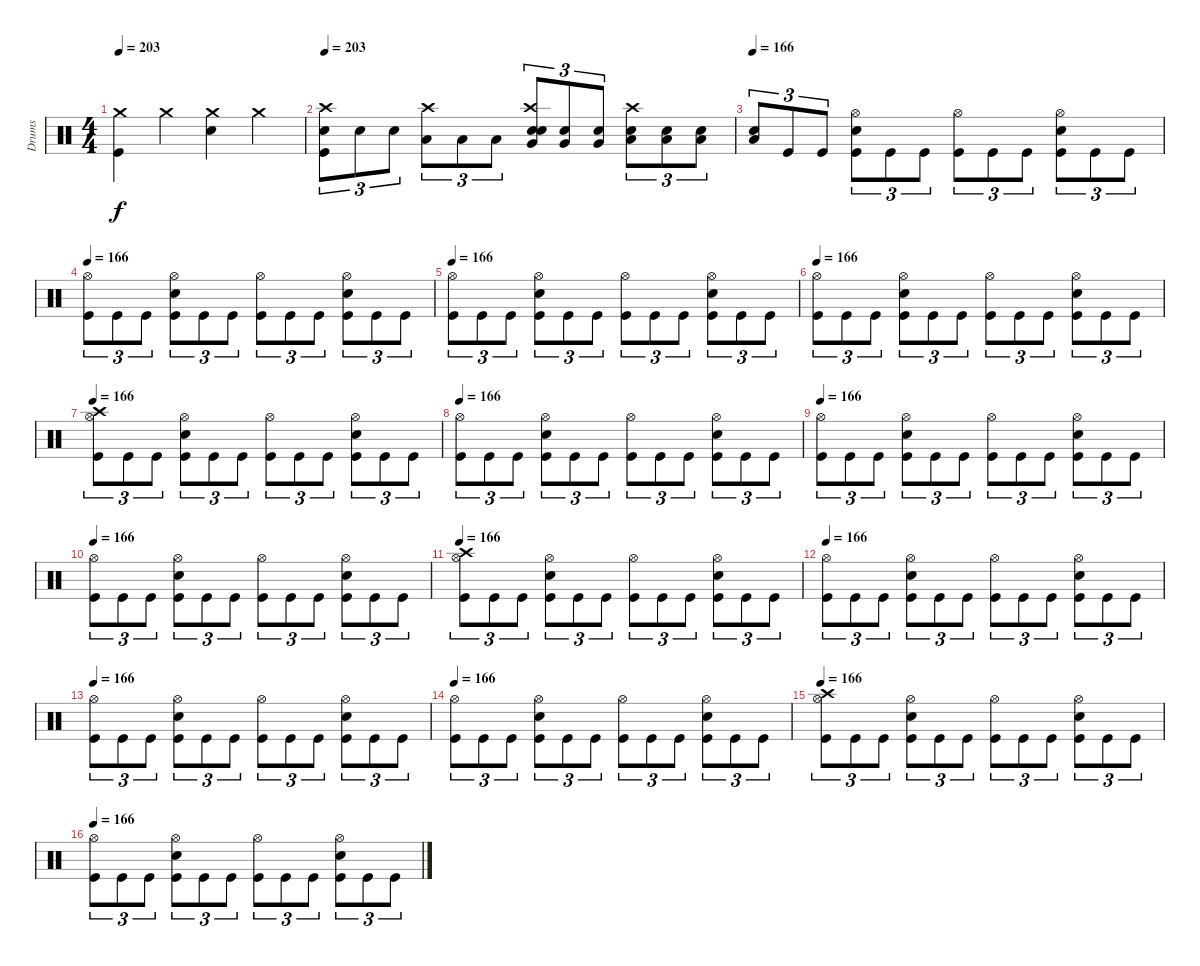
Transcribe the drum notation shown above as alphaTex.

\track ("Drums" "Drums") {instrument percussion}
\staff {score}
\articulation defaults
\ts (4 4)
\tempo 203
\clef neutral
\ks c
("Crash medium (hit)" "Kick (hit)").4{dy f} "Crash medium (hit)".4 ("Electric Snare (hit)" "Crash medium (hit)").4 "Crash medium (hit)".4 |
\tempo 203
("Electric Snare (hit)" "Crash high (hit)" "Kick (hit)").8{tu (3 2)} "Electric Snare (hit)".8{tu (3 2)} "Electric Snare (hit)".8{tu (3 2)} ("Low Tom (hit)" "Crash high (hit)").8{tu (3 2)} "Low Tom (hit)".8{tu (3 2)} "Low Tom (hit)".8{tu (3 2)} ("Electric Snare (hit)" "Very Low Tom (hit)" "Crash high (hit)" "Electric Snare (hit)").8{tu (3 2)} ("Very Low Tom (hit)" "Electric Snare (hit)").8{tu (3 2)} ("Very Low Tom (hit)" "Electric Snare (hit)").8{tu (3 2)} ("Low Floor Tom (hit)" "Crash high (hit)" "Electric Snare (hit)").8{tu (3 2)} ("Low Floor Tom (hit)" "Electric Snare (hit)").8{tu (3 2)} ("Low Floor Tom (hit)" "Electric Snare (hit)").8{tu (3 2)} |
\tempo 166
("Low Floor Tom (hit)" "Electric Snare (hit)").8{tu (3 2)} "Kick (hit)".8{tu (3 2)} "Kick (hit)".8{tu (3 2)} ("Hi-Hat (open)" "Electric Snare (hit)" "Kick (hit)").8{tu (3 2)} "Kick (hit)".8{tu (3 2)} "Kick (hit)".8{tu (3 2)} ("Hi-Hat (open)" "Kick (hit)").8{tu (3 2)} "Kick (hit)".8{tu (3 2)} "Kick (hit)".8{tu (3 2)} ("Hi-Hat (open)" "Electric Snare (hit)" "Kick (hit)").8{tu (3 2)} "Kick (hit)".8{tu (3 2)} "Kick (hit)".8{tu (3 2)} |
\tempo 166
("Hi-Hat (open)" "Kick (hit)").8{tu (3 2)} "Kick (hit)".8{tu (3 2)} "Kick (hit)".8{tu (3 2)} ("Hi-Hat (open)" "Electric Snare (hit)" "Kick (hit)").8{tu (3 2)} "Kick (hit)".8{tu (3 2)} "Kick (hit)".8{tu (3 2)} ("Hi-Hat (open)" "Kick (hit)").8{tu (3 2)} "Kick (hit)".8{tu (3 2)} "Kick (hit)".8{tu (3 2)} ("Hi-Hat (open)" "Electric Snare (hit)" "Kick (hit)").8{tu (3 2)} "Kick (hit)".8{tu (3 2)} "Kick (hit)".8{tu (3 2)} |
\tempo 166
("Hi-Hat (open)" "Kick (hit)").8{tu (3 2)} "Kick (hit)".8{tu (3 2)} "Kick (hit)".8{tu (3 2)} ("Hi-Hat (open)" "Electric Snare (hit)" "Kick (hit)").8{tu (3 2)} "Kick (hit)".8{tu (3 2)} "Kick (hit)".8{tu (3 2)} ("Hi-Hat (open)" "Kick (hit)").8{tu (3 2)} "Kick (hit)".8{tu (3 2)} "Kick (hit)".8{tu (3 2)} ("Hi-Hat (open)" "Electric Snare (hit)" "Kick (hit)").8{tu (3 2)} "Kick (hit)".8{tu (3 2)} "Kick (hit)".8{tu (3 2)} |
\tempo 166
("Hi-Hat (open)" "Kick (hit)").8{tu (3 2)} "Kick (hit)".8{tu (3 2)} "Kick (hit)".8{tu (3 2)} ("Hi-Hat (open)" "Electric Snare (hit)" "Kick (hit)").8{tu (3 2)} "Kick (hit)".8{tu (3 2)} "Kick (hit)".8{tu (3 2)} ("Hi-Hat (open)" "Kick (hit)").8{tu (3 2)} "Kick (hit)".8{tu (3 2)} "Kick (hit)".8{tu (3 2)} ("Hi-Hat (open)" "Electric Snare (hit)" "Kick (hit)").8{tu (3 2)} "Kick (hit)".8{tu (3 2)} "Kick (hit)".8{tu (3 2)} |
\tempo 166
("Hi-Hat (open)" "Crash high (hit)" "Kick (hit)").8{tu (3 2)} "Kick (hit)".8{tu (3 2)} "Kick (hit)".8{tu (3 2)} ("Hi-Hat (open)" "Electric Snare (hit)" "Kick (hit)").8{tu (3 2)} "Kick (hit)".8{tu (3 2)} "Kick (hit)".8{tu (3 2)} ("Hi-Hat (open)" "Kick (hit)").8{tu (3 2)} "Kick (hit)".8{tu (3 2)} "Kick (hit)".8{tu (3 2)} ("Hi-Hat (open)" "Electric Snare (hit)" "Kick (hit)").8{tu (3 2)} "Kick (hit)".8{tu (3 2)} "Kick (hit)".8{tu (3 2)} |
\tempo 166
("Hi-Hat (open)" "Kick (hit)").8{tu (3 2)} "Kick (hit)".8{tu (3 2)} "Kick (hit)".8{tu (3 2)} ("Hi-Hat (open)" "Electric Snare (hit)" "Kick (hit)").8{tu (3 2)} "Kick (hit)".8{tu (3 2)} "Kick (hit)".8{tu (3 2)} ("Hi-Hat (open)" "Kick (hit)").8{tu (3 2)} "Kick (hit)".8{tu (3 2)} "Kick (hit)".8{tu (3 2)} ("Hi-Hat (open)" "Electric Snare (hit)" "Kick (hit)").8{tu (3 2)} "Kick (hit)".8{tu (3 2)} "Kick (hit)".8{tu (3 2)} |
\tempo 166
("Hi-Hat (open)" "Kick (hit)").8{tu (3 2)} "Kick (hit)".8{tu (3 2)} "Kick (hit)".8{tu (3 2)} ("Hi-Hat (open)" "Electric Snare (hit)" "Kick (hit)").8{tu (3 2)} "Kick (hit)".8{tu (3 2)} "Kick (hit)".8{tu (3 2)} ("Hi-Hat (open)" "Kick (hit)").8{tu (3 2)} "Kick (hit)".8{tu (3 2)} "Kick (hit)".8{tu (3 2)} ("Hi-Hat (open)" "Electric Snare (hit)" "Kick (hit)").8{tu (3 2)} "Kick (hit)".8{tu (3 2)} "Kick (hit)".8{tu (3 2)} |
\tempo 166
("Hi-Hat (open)" "Kick (hit)").8{tu (3 2)} "Kick (hit)".8{tu (3 2)} "Kick (hit)".8{tu (3 2)} ("Hi-Hat (open)" "Electric Snare (hit)" "Kick (hit)").8{tu (3 2)} "Kick (hit)".8{tu (3 2)} "Kick (hit)".8{tu (3 2)} ("Hi-Hat (open)" "Kick (hit)").8{tu (3 2)} "Kick (hit)".8{tu (3 2)} "Kick (hit)".8{tu (3 2)} ("Hi-Hat (open)" "Electric Snare (hit)" "Kick (hit)").8{tu (3 2)} "Kick (hit)".8{tu (3 2)} "Kick (hit)".8{tu (3 2)} |
\tempo 166
("Hi-Hat (open)" "Crash high (hit)" "Kick (hit)").8{tu (3 2)} "Kick (hit)".8{tu (3 2)} "Kick (hit)".8{tu (3 2)} ("Hi-Hat (open)" "Electric Snare (hit)" "Kick (hit)").8{tu (3 2)} "Kick (hit)".8{tu (3 2)} "Kick (hit)".8{tu (3 2)} ("Hi-Hat (open)" "Kick (hit)").8{tu (3 2)} "Kick (hit)".8{tu (3 2)} "Kick (hit)".8{tu (3 2)} ("Hi-Hat (open)" "Electric Snare (hit)" "Kick (hit)").8{tu (3 2)} "Kick (hit)".8{tu (3 2)} "Kick (hit)".8{tu (3 2)} |
\tempo 166
("Hi-Hat (open)" "Kick (hit)").8{tu (3 2)} "Kick (hit)".8{tu (3 2)} "Kick (hit)".8{tu (3 2)} ("Hi-Hat (open)" "Electric Snare (hit)" "Kick (hit)").8{tu (3 2)} "Kick (hit)".8{tu (3 2)} "Kick (hit)".8{tu (3 2)} ("Hi-Hat (open)" "Kick (hit)").8{tu (3 2)} "Kick (hit)".8{tu (3 2)} "Kick (hit)".8{tu (3 2)} ("Hi-Hat (open)" "Electric Snare (hit)" "Kick (hit)").8{tu (3 2)} "Kick (hit)".8{tu (3 2)} "Kick (hit)".8{tu (3 2)} |
\tempo 166
("Hi-Hat (open)" "Kick (hit)").8{tu (3 2)} "Kick (hit)".8{tu (3 2)} "Kick (hit)".8{tu (3 2)} ("Hi-Hat (open)" "Electric Snare (hit)" "Kick (hit)").8{tu (3 2)} "Kick (hit)".8{tu (3 2)} "Kick (hit)".8{tu (3 2)} ("Hi-Hat (open)" "Kick (hit)").8{tu (3 2)} "Kick (hit)".8{tu (3 2)} "Kick (hit)".8{tu (3 2)} ("Hi-Hat (open)" "Electric Snare (hit)" "Kick (hit)").8{tu (3 2)} "Kick (hit)".8{tu (3 2)} "Kick (hit)".8{tu (3 2)} |
\tempo 166
("Hi-Hat (open)" "Kick (hit)").8{tu (3 2)} "Kick (hit)".8{tu (3 2)} "Kick (hit)".8{tu (3 2)} ("Hi-Hat (open)" "Electric Snare (hit)" "Kick (hit)").8{tu (3 2)} "Kick (hit)".8{tu (3 2)} "Kick (hit)".8{tu (3 2)} ("Hi-Hat (open)" "Kick (hit)").8{tu (3 2)} "Kick (hit)".8{tu (3 2)} "Kick (hit)".8{tu (3 2)} ("Hi-Hat (open)" "Electric Snare (hit)" "Kick (hit)").8{tu (3 2)} "Kick (hit)".8{tu (3 2)} "Kick (hit)".8{tu (3 2)} |
\tempo 166
("Hi-Hat (open)" "Crash high (hit)" "Kick (hit)").8{tu (3 2)} "Kick (hit)".8{tu (3 2)} "Kick (hit)".8{tu (3 2)} ("Hi-Hat (open)" "Electric Snare (hit)" "Kick (hit)").8{tu (3 2)} "Kick (hit)".8{tu (3 2)} "Kick (hit)".8{tu (3 2)} ("Hi-Hat (open)" "Kick (hit)").8{tu (3 2)} "Kick (hit)".8{tu (3 2)} "Kick (hit)".8{tu (3 2)} ("Hi-Hat (open)" "Electric Snare (hit)" "Kick (hit)").8{tu (3 2)} "Kick (hit)".8{tu (3 2)} "Kick (hit)".8{tu (3 2)} |
\tempo 166
("Hi-Hat (open)" "Kick (hit)").8{tu (3 2)} "Kick (hit)".8{tu (3 2)} "Kick (hit)".8{tu (3 2)} ("Hi-Hat (open)" "Electric Snare (hit)" "Kick (hit)").8{tu (3 2)} "Kick (hit)".8{tu (3 2)} "Kick (hit)".8{tu (3 2)} ("Hi-Hat (open)" "Kick (hit)").8{tu (3 2)} "Kick (hit)".8{tu (3 2)} "Kick (hit)".8{tu (3 2)} ("Hi-Hat (open)" "Electric Snare (hit)" "Kick (hit)").8{tu (3 2)} "Kick (hit)".8{tu (3 2)} "Kick (hit)".8{tu (3 2)}
